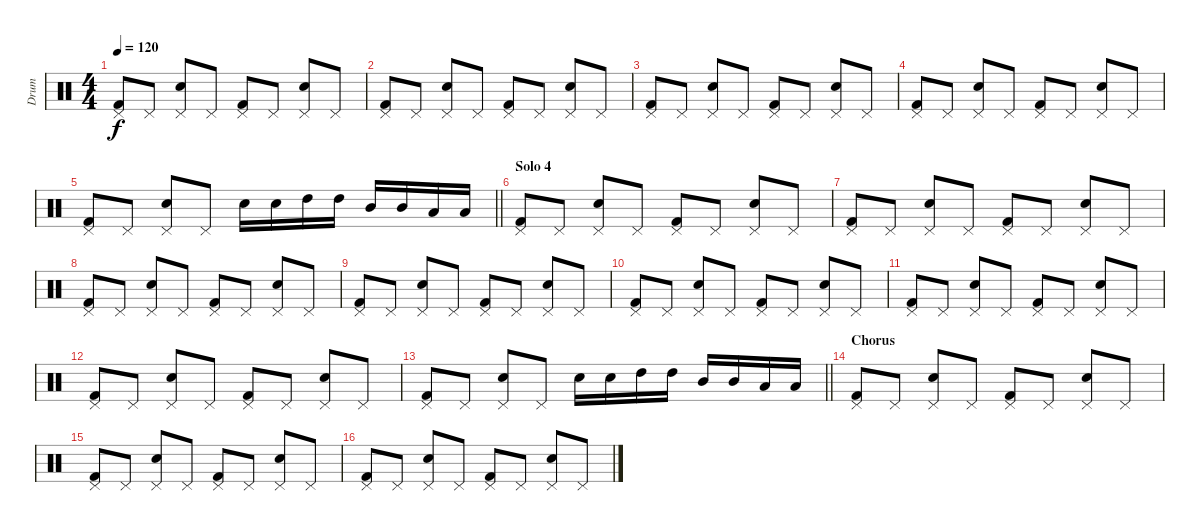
\track ("Drum" "Drum") {instrument percussion}
\staff {score}
\articulation defaults
\ts (4 4)
\tempo 120
\clef neutral
\ks c
("Pedal Hi-Hat (hit)" "Kick (hit) 2").8{dy f} "Pedal Hi-Hat (hit)".8 ("Pedal Hi-Hat (hit)" "Electric Snare (hit)").8 "Pedal Hi-Hat (hit)".8 ("Pedal Hi-Hat (hit)" "Kick (hit) 2").8 "Pedal Hi-Hat (hit)".8 ("Pedal Hi-Hat (hit)" "Electric Snare (hit)").8 "Pedal Hi-Hat (hit)".8 |
("Pedal Hi-Hat (hit)" "Kick (hit) 2").8 "Pedal Hi-Hat (hit)".8 ("Pedal Hi-Hat (hit)" "Electric Snare (hit)").8 "Pedal Hi-Hat (hit)".8 ("Pedal Hi-Hat (hit)" "Kick (hit) 2").8 "Pedal Hi-Hat (hit)".8 ("Pedal Hi-Hat (hit)" "Electric Snare (hit)").8 "Pedal Hi-Hat (hit)".8 |
("Pedal Hi-Hat (hit)" "Kick (hit) 2").8 "Pedal Hi-Hat (hit)".8 ("Pedal Hi-Hat (hit)" "Electric Snare (hit)").8 "Pedal Hi-Hat (hit)".8 ("Pedal Hi-Hat (hit)" "Kick (hit) 2").8 "Pedal Hi-Hat (hit)".8 ("Pedal Hi-Hat (hit)" "Electric Snare (hit)").8 "Pedal Hi-Hat (hit)".8 |
("Pedal Hi-Hat (hit)" "Kick (hit) 2").8 "Pedal Hi-Hat (hit)".8 ("Pedal Hi-Hat (hit)" "Electric Snare (hit)").8 "Pedal Hi-Hat (hit)".8 ("Pedal Hi-Hat (hit)" "Kick (hit) 2").8 "Pedal Hi-Hat (hit)".8 ("Pedal Hi-Hat (hit)" "Electric Snare (hit)").8 "Pedal Hi-Hat (hit)".8 |
\barLineRight lightlight
("Pedal Hi-Hat (hit)" "Kick (hit) 2").8 "Pedal Hi-Hat (hit)".8 ("Pedal Hi-Hat (hit)" "Electric Snare (hit)").8 "Pedal Hi-Hat (hit)".8 "Electric Snare (hit)".16 "Electric Snare (hit)".16 "High Tom (hit)".16 "High Tom (hit)".16 "Mid Tom (hit)".16 "Mid Tom (hit)".16 "Low Tom (hit)".16 "Low Tom (hit)".16 |
\section ("" "Solo 4")
("Pedal Hi-Hat (hit)" "Kick (hit) 2").8 "Pedal Hi-Hat (hit)".8 ("Pedal Hi-Hat (hit)" "Electric Snare (hit)").8 "Pedal Hi-Hat (hit)".8 ("Pedal Hi-Hat (hit)" "Kick (hit) 2").8 "Pedal Hi-Hat (hit)".8 ("Pedal Hi-Hat (hit)" "Electric Snare (hit)").8 "Pedal Hi-Hat (hit)".8 |
("Pedal Hi-Hat (hit)" "Kick (hit) 2").8 "Pedal Hi-Hat (hit)".8 ("Pedal Hi-Hat (hit)" "Electric Snare (hit)").8 "Pedal Hi-Hat (hit)".8 ("Pedal Hi-Hat (hit)" "Kick (hit) 2").8 "Pedal Hi-Hat (hit)".8 ("Pedal Hi-Hat (hit)" "Electric Snare (hit)").8 "Pedal Hi-Hat (hit)".8 |
("Pedal Hi-Hat (hit)" "Kick (hit) 2").8 "Pedal Hi-Hat (hit)".8 ("Pedal Hi-Hat (hit)" "Electric Snare (hit)").8 "Pedal Hi-Hat (hit)".8 ("Pedal Hi-Hat (hit)" "Kick (hit) 2").8 "Pedal Hi-Hat (hit)".8 ("Pedal Hi-Hat (hit)" "Electric Snare (hit)").8 "Pedal Hi-Hat (hit)".8 |
("Pedal Hi-Hat (hit)" "Kick (hit) 2").8 "Pedal Hi-Hat (hit)".8 ("Pedal Hi-Hat (hit)" "Electric Snare (hit)").8 "Pedal Hi-Hat (hit)".8 ("Pedal Hi-Hat (hit)" "Kick (hit) 2").8 "Pedal Hi-Hat (hit)".8 ("Pedal Hi-Hat (hit)" "Electric Snare (hit)").8 "Pedal Hi-Hat (hit)".8 |
("Pedal Hi-Hat (hit)" "Kick (hit) 2").8 "Pedal Hi-Hat (hit)".8 ("Pedal Hi-Hat (hit)" "Electric Snare (hit)").8 "Pedal Hi-Hat (hit)".8 ("Pedal Hi-Hat (hit)" "Kick (hit) 2").8 "Pedal Hi-Hat (hit)".8 ("Pedal Hi-Hat (hit)" "Electric Snare (hit)").8 "Pedal Hi-Hat (hit)".8 |
("Pedal Hi-Hat (hit)" "Kick (hit) 2").8 "Pedal Hi-Hat (hit)".8 ("Pedal Hi-Hat (hit)" "Electric Snare (hit)").8 "Pedal Hi-Hat (hit)".8 ("Pedal Hi-Hat (hit)" "Kick (hit) 2").8 "Pedal Hi-Hat (hit)".8 ("Pedal Hi-Hat (hit)" "Electric Snare (hit)").8 "Pedal Hi-Hat (hit)".8 |
("Pedal Hi-Hat (hit)" "Kick (hit) 2").8 "Pedal Hi-Hat (hit)".8 ("Pedal Hi-Hat (hit)" "Electric Snare (hit)").8 "Pedal Hi-Hat (hit)".8 ("Pedal Hi-Hat (hit)" "Kick (hit) 2").8 "Pedal Hi-Hat (hit)".8 ("Pedal Hi-Hat (hit)" "Electric Snare (hit)").8 "Pedal Hi-Hat (hit)".8 |
\barLineRight lightlight
("Pedal Hi-Hat (hit)" "Kick (hit) 2").8 "Pedal Hi-Hat (hit)".8 ("Pedal Hi-Hat (hit)" "Electric Snare (hit)").8 "Pedal Hi-Hat (hit)".8 "Electric Snare (hit)".16 "Electric Snare (hit)".16 "High Tom (hit)".16 "High Tom (hit)".16 "Mid Tom (hit)".16 "Mid Tom (hit)".16 "Low Tom (hit)".16 "Low Tom (hit)".16 |
\section ("" "Chorus")
("Pedal Hi-Hat (hit)" "Kick (hit) 2").8 "Pedal Hi-Hat (hit)".8 ("Pedal Hi-Hat (hit)" "Electric Snare (hit)").8 "Pedal Hi-Hat (hit)".8 ("Pedal Hi-Hat (hit)" "Kick (hit) 2").8 "Pedal Hi-Hat (hit)".8 ("Pedal Hi-Hat (hit)" "Electric Snare (hit)").8 "Pedal Hi-Hat (hit)".8 |
("Pedal Hi-Hat (hit)" "Kick (hit) 2").8 "Pedal Hi-Hat (hit)".8 ("Pedal Hi-Hat (hit)" "Electric Snare (hit)").8 "Pedal Hi-Hat (hit)".8 ("Pedal Hi-Hat (hit)" "Kick (hit) 2").8 "Pedal Hi-Hat (hit)".8 ("Pedal Hi-Hat (hit)" "Electric Snare (hit)").8 "Pedal Hi-Hat (hit)".8 |
("Pedal Hi-Hat (hit)" "Kick (hit) 2").8 "Pedal Hi-Hat (hit)".8 ("Pedal Hi-Hat (hit)" "Electric Snare (hit)").8 "Pedal Hi-Hat (hit)".8 ("Pedal Hi-Hat (hit)" "Kick (hit) 2").8 "Pedal Hi-Hat (hit)".8 ("Pedal Hi-Hat (hit)" "Electric Snare (hit)").8 "Pedal Hi-Hat (hit)".8
